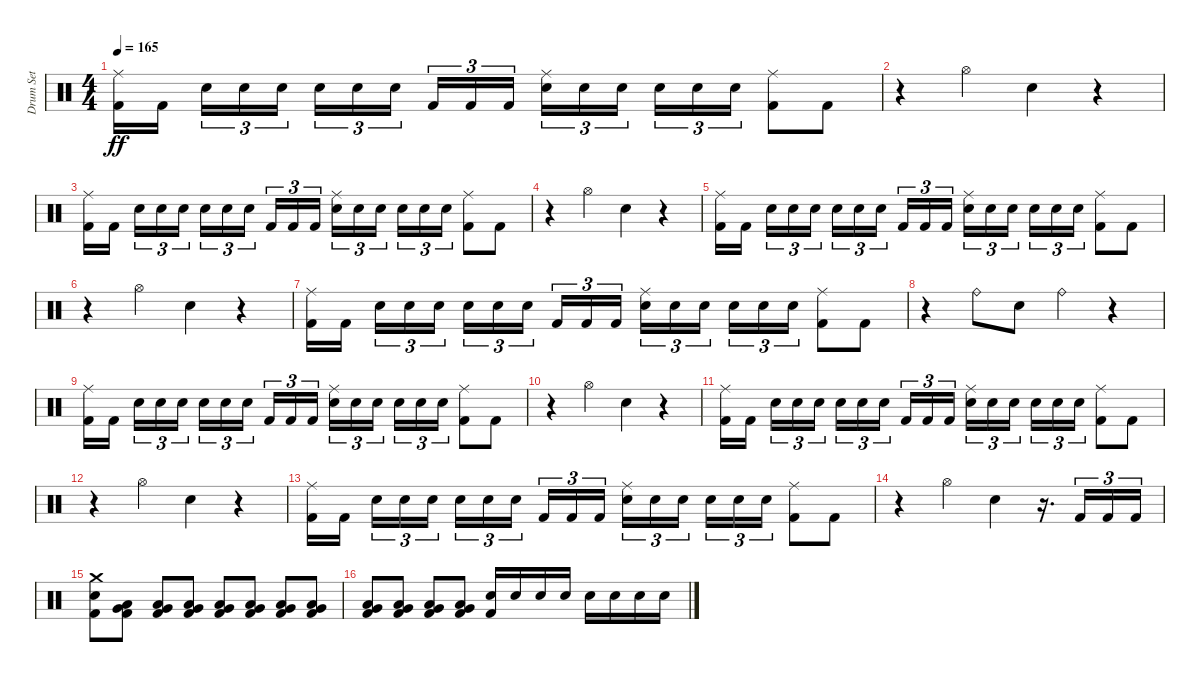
\track ("Drum Set" "Drum Set") {instrument percussion}
\staff {score}
\articulation defaults
\ts (4 4)
\tempo 165
\clef neutral
\ks c
("Ride (middle)" "Kick (hit) 2").16{dy ff} "Kick (hit) 2".16{beam splitsecondary} "Snare (hit) 2".16{tu (3 2)} "Snare (hit) 2".16{tu (3 2)} "Snare (hit) 2".16{tu (3 2)} "Snare (hit) 2".16{tu (3 2)} "Snare (hit) 2".16{tu (3 2)} "Snare (hit) 2".16{tu (3 2) beam splitsecondary} "Kick (hit) 2".16{tu (3 2)} "Kick (hit) 2".16{tu (3 2)} "Kick (hit) 2".16{tu (3 2)} ("Ride (middle)" "Snare (hit) 2").16{tu (3 2)} "Snare (hit) 2".16{tu (3 2)} "Snare (hit) 2".16{tu (3 2) beam splitsecondary} "Snare (hit) 2".16{tu (3 2)} "Snare (hit) 2".16{tu (3 2)} "Snare (hit) 2".16{tu (3 2)} ("Ride (middle)" "Kick (hit) 2").8 "Kick (hit) 2".8 |
r.4 "Hi-Hat (open)".4 "Snare (hit) 2".4 r.4 |
("Ride (middle)" "Kick (hit) 2").16 "Kick (hit) 2".16{beam splitsecondary} "Snare (hit) 2".16{tu (3 2)} "Snare (hit) 2".16{tu (3 2)} "Snare (hit) 2".16{tu (3 2)} "Snare (hit) 2".16{tu (3 2)} "Snare (hit) 2".16{tu (3 2)} "Snare (hit) 2".16{tu (3 2) beam splitsecondary} "Kick (hit) 2".16{tu (3 2)} "Kick (hit) 2".16{tu (3 2)} "Kick (hit) 2".16{tu (3 2)} ("Ride (middle)" "Snare (hit) 2").16{tu (3 2)} "Snare (hit) 2".16{tu (3 2)} "Snare (hit) 2".16{tu (3 2) beam splitsecondary} "Snare (hit) 2".16{tu (3 2)} "Snare (hit) 2".16{tu (3 2)} "Snare (hit) 2".16{tu (3 2)} ("Ride (middle)" "Kick (hit) 2").8 "Kick (hit) 2".8 |
r.4 "Hi-Hat (open)".4 "Snare (hit) 2".4 r.4 |
("Ride (middle)" "Kick (hit) 2").16 "Kick (hit) 2".16{beam splitsecondary} "Snare (hit) 2".16{tu (3 2)} "Snare (hit) 2".16{tu (3 2)} "Snare (hit) 2".16{tu (3 2)} "Snare (hit) 2".16{tu (3 2)} "Snare (hit) 2".16{tu (3 2)} "Snare (hit) 2".16{tu (3 2) beam splitsecondary} "Kick (hit) 2".16{tu (3 2)} "Kick (hit) 2".16{tu (3 2)} "Kick (hit) 2".16{tu (3 2)} ("Ride (middle)" "Snare (hit) 2").16{tu (3 2)} "Snare (hit) 2".16{tu (3 2)} "Snare (hit) 2".16{tu (3 2) beam splitsecondary} "Snare (hit) 2".16{tu (3 2)} "Snare (hit) 2".16{tu (3 2)} "Snare (hit) 2".16{tu (3 2)} ("Ride (middle)" "Kick (hit) 2").8 "Kick (hit) 2".8 |
r.4 "Hi-Hat (open)".4 "Snare (hit) 2".4 r.4 |
("Ride (middle)" "Kick (hit) 2").16 "Kick (hit) 2".16{beam splitsecondary} "Snare (hit) 2".16{tu (3 2)} "Snare (hit) 2".16{tu (3 2)} "Snare (hit) 2".16{tu (3 2)} "Snare (hit) 2".16{tu (3 2)} "Snare (hit) 2".16{tu (3 2)} "Snare (hit) 2".16{tu (3 2) beam splitsecondary} "Kick (hit) 2".16{tu (3 2)} "Kick (hit) 2".16{tu (3 2)} "Kick (hit) 2".16{tu (3 2)} ("Ride (middle)" "Snare (hit) 2").16{tu (3 2)} "Snare (hit) 2".16{tu (3 2)} "Snare (hit) 2".16{tu (3 2) beam splitsecondary} "Snare (hit) 2".16{tu (3 2)} "Snare (hit) 2".16{tu (3 2)} "Snare (hit) 2".16{tu (3 2)} ("Ride (middle)" "Kick (hit) 2").8 "Kick (hit) 2".8 |
r.4 "Ride (bell)".8 "Snare (hit) 2".8 "Ride (bell)".4 r.4 |
("Ride (middle)" "Kick (hit) 2").16 "Kick (hit) 2".16{beam splitsecondary} "Snare (hit) 2".16{tu (3 2)} "Snare (hit) 2".16{tu (3 2)} "Snare (hit) 2".16{tu (3 2)} "Snare (hit) 2".16{tu (3 2)} "Snare (hit) 2".16{tu (3 2)} "Snare (hit) 2".16{tu (3 2) beam splitsecondary} "Kick (hit) 2".16{tu (3 2)} "Kick (hit) 2".16{tu (3 2)} "Kick (hit) 2".16{tu (3 2)} ("Ride (middle)" "Snare (hit) 2").16{tu (3 2)} "Snare (hit) 2".16{tu (3 2)} "Snare (hit) 2".16{tu (3 2) beam splitsecondary} "Snare (hit) 2".16{tu (3 2)} "Snare (hit) 2".16{tu (3 2)} "Snare (hit) 2".16{tu (3 2)} ("Ride (middle)" "Kick (hit) 2").8 "Kick (hit) 2".8 |
r.4 "Hi-Hat (open)".4 "Snare (hit) 2".4 r.4 |
("Ride (middle)" "Kick (hit) 2").16 "Kick (hit) 2".16{beam splitsecondary} "Snare (hit) 2".16{tu (3 2)} "Snare (hit) 2".16{tu (3 2)} "Snare (hit) 2".16{tu (3 2)} "Snare (hit) 2".16{tu (3 2)} "Snare (hit) 2".16{tu (3 2)} "Snare (hit) 2".16{tu (3 2) beam splitsecondary} "Kick (hit) 2".16{tu (3 2)} "Kick (hit) 2".16{tu (3 2)} "Kick (hit) 2".16{tu (3 2)} ("Ride (middle)" "Snare (hit) 2").16{tu (3 2)} "Snare (hit) 2".16{tu (3 2)} "Snare (hit) 2".16{tu (3 2) beam splitsecondary} "Snare (hit) 2".16{tu (3 2)} "Snare (hit) 2".16{tu (3 2)} "Snare (hit) 2".16{tu (3 2)} ("Ride (middle)" "Kick (hit) 2").8 "Kick (hit) 2".8 |
r.4 "Hi-Hat (open)".4 "Snare (hit) 2".4 r.4 |
("Ride (middle)" "Kick (hit) 2").16 "Kick (hit) 2".16{beam splitsecondary} "Snare (hit) 2".16{tu (3 2)} "Snare (hit) 2".16{tu (3 2)} "Snare (hit) 2".16{tu (3 2)} "Snare (hit) 2".16{tu (3 2)} "Snare (hit) 2".16{tu (3 2)} "Snare (hit) 2".16{tu (3 2) beam splitsecondary} "Kick (hit) 2".16{tu (3 2)} "Kick (hit) 2".16{tu (3 2)} "Kick (hit) 2".16{tu (3 2)} ("Ride (middle)" "Snare (hit) 2").16{tu (3 2)} "Snare (hit) 2".16{tu (3 2)} "Snare (hit) 2".16{tu (3 2) beam splitsecondary} "Snare (hit) 2".16{tu (3 2)} "Snare (hit) 2".16{tu (3 2)} "Snare (hit) 2".16{tu (3 2)} ("Ride (middle)" "Kick (hit) 2").8 "Kick (hit) 2".8 |
r.4 "Hi-Hat (open)".4 "Snare (hit) 2".4 r.16{d} "Kick (hit) 2".16{tu (3 2)} "Kick (hit) 2".16{tu (3 2)} "Kick (hit) 2".16{tu (3 2)} |
("Crash medium (hit)" "Snare (hit) 2" "Kick (hit) 2").8 ("Very Low Tom (hit)" "Low Floor Tom (hit)" "Kick (hit) 2").8 ("Very Low Tom (hit)" "Low Floor Tom (hit)" "Kick (hit) 2").8 ("Very Low Tom (hit)" "Low Floor Tom (hit)" "Kick (hit) 2").8 ("Very Low Tom (hit)" "Low Floor Tom (hit)" "Kick (hit) 2").8 ("Very Low Tom (hit)" "Low Floor Tom (hit)" "Kick (hit) 2").8 ("Very Low Tom (hit)" "Low Floor Tom (hit)" "Kick (hit) 2").8 ("Very Low Tom (hit)" "Low Floor Tom (hit)" "Kick (hit) 2").8 |
("Very Low Tom (hit)" "Low Floor Tom (hit)" "Kick (hit) 2").8 ("Very Low Tom (hit)" "Low Floor Tom (hit)" "Kick (hit) 2").8 ("Very Low Tom (hit)" "Low Floor Tom (hit)" "Kick (hit) 2").8 ("Very Low Tom (hit)" "Low Floor Tom (hit)" "Kick (hit) 2").8 ("Snare (hit) 2" "Kick (hit) 2").16 "Snare (hit) 2".16 "Snare (hit) 2".16 "Snare (hit) 2".16 "Snare (hit) 2".16 "Snare (hit) 2".16 "Snare (hit) 2".16 "Snare (hit) 2".16
